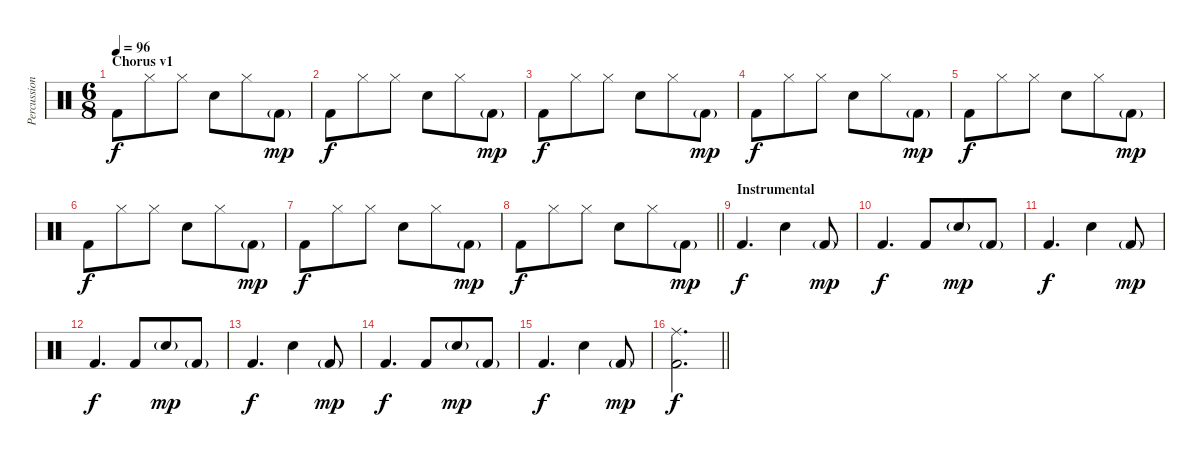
\track ("Percussion" "Percussion") {instrument percussion}
\staff {score}
\articulation defaults
\ts (6 8)
\section ("" "Chorus v1")
\tempo 96
\clef neutral
\ks c "Kick (hit) 2".8{dy f} "Hi-Hat (closed)".8 "Hi-Hat (closed)".8 "Snare (hit) 2".8 "Hi-Hat (closed)".8 "Kick (hit) 2"{g}.8{dy mp}
|
"Kick (hit) 2".8{dy f} "Hi-Hat (closed)".8 "Hi-Hat (closed)".8 "Snare (hit) 2".8 "Hi-Hat (closed)".8 "Kick (hit) 2"{g}.8{dy mp} |
"Kick (hit) 2".8{dy f} "Hi-Hat (closed)".8 "Hi-Hat (closed)".8 "Snare (hit) 2".8 "Hi-Hat (closed)".8 "Kick (hit) 2"{g}.8{dy mp} |
"Kick (hit) 2".8{dy f} "Hi-Hat (closed)".8 "Hi-Hat (closed)".8 "Snare (hit) 2".8 "Hi-Hat (closed)".8 "Kick (hit) 2"{g}.8{dy mp} |
"Kick (hit) 2".8{dy f} "Hi-Hat (closed)".8 "Hi-Hat (closed)".8 "Snare (hit) 2".8 "Hi-Hat (closed)".8 "Kick (hit) 2"{g}.8{dy mp} |
"Kick (hit) 2".8{dy f} "Hi-Hat (closed)".8 "Hi-Hat (closed)".8 "Snare (hit) 2".8 "Hi-Hat (closed)".8 "Kick (hit) 2"{g}.8{dy mp} |
"Kick (hit) 2".8{dy f} "Hi-Hat (closed)".8 "Hi-Hat (closed)".8 "Snare (hit) 2".8 "Hi-Hat (closed)".8 "Kick (hit) 2"{g}.8{dy mp} |
\barLineRight lightlight "Kick (hit) 2".8{dy f} "Hi-Hat (closed)".8 "Hi-Hat (closed)".8 "Snare (hit) 2".8 "Hi-Hat (closed)".8 "Kick (hit) 2"{g}.8{dy mp}
|
\section ("" "Instrumental")
"Kick (hit) 2".4{d dy f} "Snare (hit) 2".4 "Kick (hit) 2"{g}.8{dy mp} |
"Kick (hit) 2".4{d dy f} "Kick (hit) 2".8 "Snare (hit) 2"{g}.8{dy mp} "Kick (hit) 2"{g}.8 |
"Kick (hit) 2".4{d dy f} "Snare (hit) 2".4 "Kick (hit) 2"{g}.8{dy mp} |
"Kick (hit) 2".4{d dy f} "Kick (hit) 2".8 "Snare (hit) 2"{g}.8{dy mp} "Kick (hit) 2"{g}.8 |
"Kick (hit) 2".4{d dy f} "Snare (hit) 2".4 "Kick (hit) 2"{g}.8{dy mp} |
"Kick (hit) 2".4{d dy f} "Kick (hit) 2".8 "Snare (hit) 2"{g}.8{dy mp} "Kick (hit) 2"{g}.8 |
"Kick (hit) 2".4{d dy f} "Snare (hit) 2".4 "Kick (hit) 2"{g}.8{dy mp} |
\barLineRight lightlight
("Ride (middle)" "Kick (hit) 2").2{d dy f}
